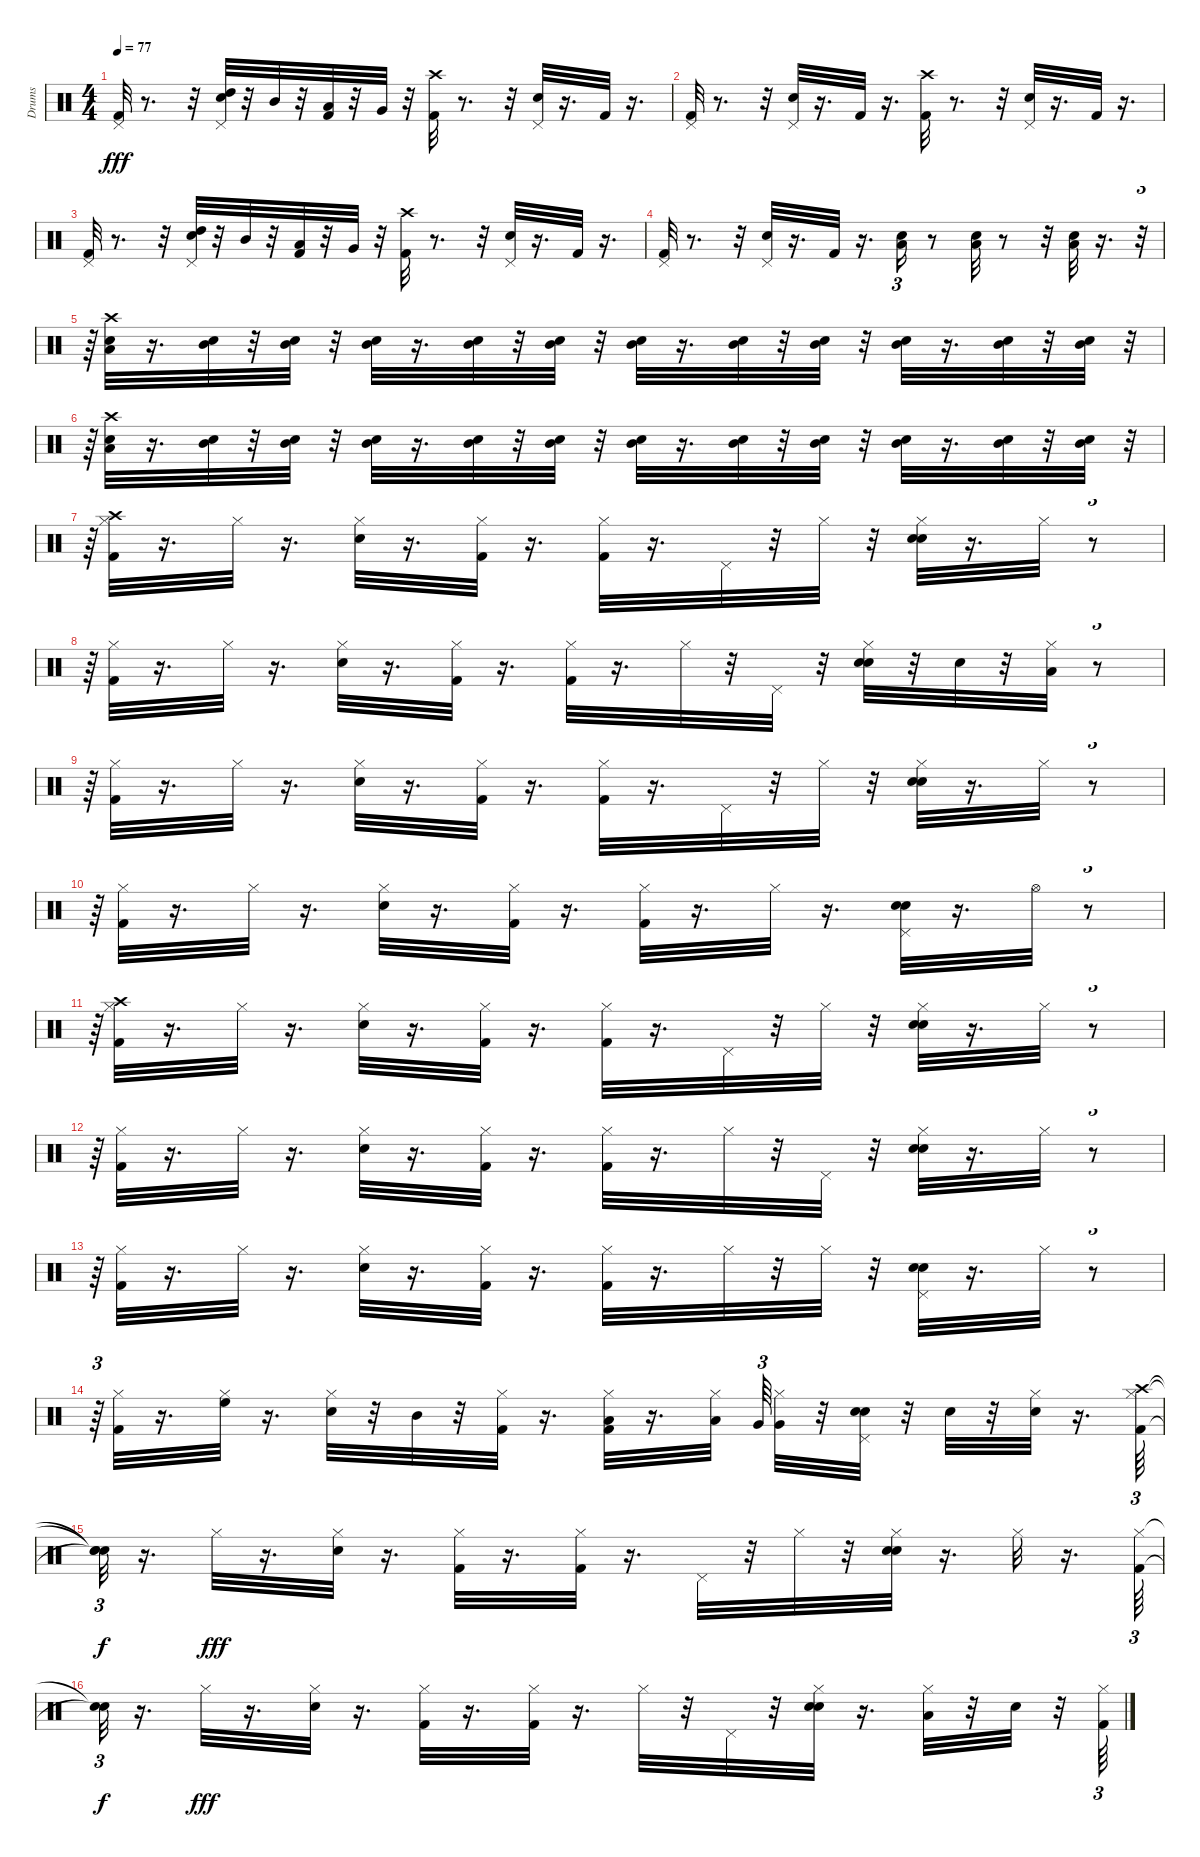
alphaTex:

\track ("Drums   " "Drums   ") {instrument percussion}
\staff {score}
\articulation defaults
\ts (4 4)
\tempo 77
\clef neutral
\ks c
("Kick (hit) 2" "Pedal Hi-Hat (hit)").32{dy fff} r.8{d} r.32 ("Snare (hit) 2" "Pedal Hi-Hat (hit)" "High Tom (hit)").32 r.32 "Mid Tom (hit)".32 r.32 ("Kick (hit) 2" "Low Tom (hit)").32 r.32 "Very Low Tom (hit)".32 r.32 ("Kick (hit) 2" "Crash high (hit)").32 r.8{d} r.32 ("Snare (hit) 2" "Pedal Hi-Hat (hit)").32 r.16{d} "Kick (hit) 2".32 r.16{d} |
("Kick (hit) 2" "Pedal Hi-Hat (hit)").32 r.8{d} r.32 ("Snare (hit) 2" "Pedal Hi-Hat (hit)").32 r.16{d} "Kick (hit) 2".32 r.16{d} ("Kick (hit) 2" "Crash high (hit)").32 r.8{d} r.32 ("Snare (hit) 2" "Pedal Hi-Hat (hit)").32 r.16{d} "Kick (hit) 2".32 r.16{d} |
("Kick (hit) 2" "Pedal Hi-Hat (hit)").32 r.8{d} r.32 ("Snare (hit) 2" "Pedal Hi-Hat (hit)" "High Tom (hit)").32 r.32 "Mid Tom (hit)".32 r.32 ("Kick (hit) 2" "Low Tom (hit)").32 r.32 "Very Low Tom (hit)".32 r.32 ("Kick (hit) 2" "Crash high (hit)").32 r.8{d} r.32 ("Snare (hit) 2" "Pedal Hi-Hat (hit)").32 r.16{d} "Kick (hit) 2".32 r.16{d} |
("Kick (hit) 2" "Pedal Hi-Hat (hit)").32 r.8{d} r.32 ("Snare (hit) 2" "Pedal Hi-Hat (hit)").32 r.16{d} "Kick (hit) 2".32 r.16{d} ("Snare (hit) 2" "Low Tom (hit)").16{tu (3 2)} r.8 ("Snare (hit) 2" "Low Tom (hit)").32 r.8 r.32 ("Snare (hit) 2" "Low Tom (hit)").32 r.16{d} r.32{tu (3 2)} |
r.64{tu (3 2)} ("Snare (hit) 2" "Low Tom (hit)" "Crash high (hit)").32 r.16{d} ("Snare (hit) 2" "Mid Tom (hit)").32 r.32 ("Snare (hit) 2" "Mid Tom (hit)").32 r.32 ("Snare (hit) 2" "Mid Tom (hit)").32 r.16{d} ("Snare (hit) 2" "Mid Tom (hit)").32 r.32 ("Snare (hit) 2" "Mid Tom (hit)").32 r.32 ("Snare (hit) 2" "Mid Tom (hit)").32 r.16{d} ("Snare (hit) 2" "Mid Tom (hit)").32 r.32 ("Snare (hit) 2" "Mid Tom (hit)").32 r.32 ("Snare (hit) 2" "Mid Tom (hit)").32 r.16{d} ("Snare (hit) 2" "Mid Tom (hit)").32 r.32 ("Snare (hit) 2" "Mid Tom (hit)").32 r.32{tu (3 2)} |
r.64{tu (3 2)} ("Snare (hit) 2" "Low Tom (hit)" "Crash high (hit)").32 r.16{d} ("Snare (hit) 2" "Mid Tom (hit)").32 r.32 ("Snare (hit) 2" "Mid Tom (hit)").32 r.32 ("Snare (hit) 2" "Mid Tom (hit)").32 r.16{d} ("Snare (hit) 2" "Mid Tom (hit)").32 r.32 ("Snare (hit) 2" "Mid Tom (hit)").32 r.32 ("Snare (hit) 2" "Mid Tom (hit)").32 r.16{d} ("Snare (hit) 2" "Mid Tom (hit)").32 r.32 ("Snare (hit) 2" "Mid Tom (hit)").32 r.32 ("Snare (hit) 2" "Mid Tom (hit)").32 r.16{d} ("Snare (hit) 2" "Mid Tom (hit)").32 r.32 ("Snare (hit) 2" "Mid Tom (hit)").32 r.32{tu (3 2)} |
r.64{tu (3 2)} ("Kick (hit) 2" "Hi-Hat (closed)" "Crash high (hit)").32 r.16{d} "Hi-Hat (closed)".32 r.16{d} ("Snare (hit) 2" "Hi-Hat (closed)").32 r.16{d} ("Kick (hit) 2" "Hi-Hat (closed)").32 r.16{d} ("Kick (hit) 2" "Hi-Hat (closed)").32 r.16{d} "Pedal Hi-Hat (hit)".32 r.32 "Hi-Hat (closed)".32 r.32 ("Snare (hit) 2" "Hand Clap (hit)" "Hi-Hat (closed)").32 r.16{d} "Hi-Hat (closed)".32 r.8{tu (3 2)} |
r.64{tu (3 2)} ("Kick (hit) 2" "Hi-Hat (closed)").32 r.16{d} "Hi-Hat (closed)".32 r.16{d} ("Snare (hit) 2" "Hi-Hat (closed)").32 r.16{d} ("Kick (hit) 2" "Hi-Hat (closed)").32 r.16{d} ("Kick (hit) 2" "Hi-Hat (closed)").32 r.16{d} "Hi-Hat (closed)".32 r.32 "Pedal Hi-Hat (hit)".32 r.32 ("Snare (hit) 2" "Hand Clap (hit)" "Hi-Hat (closed)").32 r.32 "Snare (hit) 2".32 r.32 ("Hi-Hat (closed)" "Low Tom (hit)").32 r.8{tu (3 2)} |
r.64{tu (3 2)} ("Kick (hit) 2" "Hi-Hat (closed)").32 r.16{d} "Hi-Hat (closed)".32 r.16{d} ("Snare (hit) 2" "Hi-Hat (closed)").32 r.16{d} ("Kick (hit) 2" "Hi-Hat (closed)").32 r.16{d} ("Kick (hit) 2" "Hi-Hat (closed)").32 r.16{d} "Pedal Hi-Hat (hit)".32 r.32 "Hi-Hat (closed)".32 r.32 ("Snare (hit) 2" "Hand Clap (hit)" "Hi-Hat (closed)").32 r.16{d} "Hi-Hat (closed)".32 r.8{tu (3 2)} |
r.64{tu (3 2)} ("Kick (hit) 2" "Hi-Hat (closed)").32 r.16{d} "Hi-Hat (closed)".32 r.16{d} ("Snare (hit) 2" "Hi-Hat (closed)").32 r.16{d} ("Kick (hit) 2" "Hi-Hat (closed)").32 r.16{d} ("Kick (hit) 2" "Hi-Hat (closed)").32 r.16{d} "Hi-Hat (closed)".32 r.16{d} ("Snare (hit) 2" "Hand Clap (hit)" "Pedal Hi-Hat (hit)").32 r.16{d} "Hi-Hat (open)".32 r.8{tu (3 2)} |
r.64{tu (3 2)} ("Kick (hit) 2" "Hi-Hat (closed)" "Crash high (hit)").32 r.16{d} "Hi-Hat (closed)".32 r.16{d} ("Snare (hit) 2" "Hi-Hat (closed)").32 r.16{d} ("Kick (hit) 2" "Hi-Hat (closed)").32 r.16{d} ("Kick (hit) 2" "Hi-Hat (closed)").32 r.16{d} "Pedal Hi-Hat (hit)".32 r.32 "Hi-Hat (closed)".32 r.32 ("Snare (hit) 2" "Hand Clap (hit)" "Hi-Hat (closed)").32 r.16{d} "Hi-Hat (closed)".32 r.8{tu (3 2)} |
r.64{tu (3 2)} ("Kick (hit) 2" "Hi-Hat (closed)").32 r.16{d} "Hi-Hat (closed)".32 r.16{d} ("Snare (hit) 2" "Hi-Hat (closed)").32 r.16{d} ("Kick (hit) 2" "Hi-Hat (closed)").32 r.16{d} ("Kick (hit) 2" "Hi-Hat (closed)").32 r.16{d} "Hi-Hat (closed)".32 r.32 "Pedal Hi-Hat (hit)".32 r.32 ("Snare (hit) 2" "Hand Clap (hit)" "Hi-Hat (closed)").32 r.16{d} "Hi-Hat (closed)".32 r.8{tu (3 2)} |
r.64{tu (3 2)} ("Kick (hit) 2" "Hi-Hat (closed)").32 r.16{d} "Hi-Hat (closed)".32 r.16{d} ("Snare (hit) 2" "Hi-Hat (closed)").32 r.16{d} ("Kick (hit) 2" "Hi-Hat (closed)").32 r.16{d} ("Kick (hit) 2" "Hi-Hat (closed)").32 r.16{d} "Hi-Hat (closed)".32 r.32 "Hi-Hat (closed)".32 r.32 ("Snare (hit) 2" "Hand Clap (hit)" "Pedal Hi-Hat (hit)").32 r.16{d} "Hi-Hat (closed)".32 r.8{tu (3 2)} |
r.64{tu (3 2)} ("Kick (hit) 2" "Hi-Hat (closed)").32 r.16{d} ("Hi-Hat (closed)" "High Floor Tom (hit)").32 r.16{d} ("Snare (hit) 2" "Hi-Hat (closed)").32 r.32 "Mid Tom (hit)".32 r.32 ("Kick (hit) 2" "Hi-Hat (closed)").32 r.16{d} ("Kick (hit) 2" "Hi-Hat (closed)" "Low Tom (hit)").32 r.16{d} ("Hi-Hat (closed)" "Low Tom (hit)").32 "Very Low Tom (hit)".64{tu (3 2)} ("Hi-Hat (closed)" "Very Low Tom (hit)").32 r.32 ("Snare (hit) 2" "Hand Clap (hit)" "Pedal Hi-Hat (hit)").32 r.32 "Electric Snare (hit)".32 r.32 ("Snare (hit) 2" "Hi-Hat (closed)").32 r.16{d} ("Kick (hit) 2" "Hi-Hat (closed)" "Crash high (hit)").64{tu (3 2)} |
("Snare (hit)"{t} "Snare (hit)"{t} "Snare (hit)"{t}).32{tu (3 2) dy f} r.16{d} "Hi-Hat (closed)".32{dy fff} r.16{d} ("Snare (hit) 2" "Hi-Hat (closed)").32 r.16{d} ("Kick (hit) 2" "Hi-Hat (closed)").32 r.16{d} ("Kick (hit) 2" "Hi-Hat (closed)").32 r.16{d} "Pedal Hi-Hat (hit)".32 r.32 "Hi-Hat (closed)".32 r.32 ("Snare (hit) 2" "Hand Clap (hit)" "Hi-Hat (closed)").32 r.16{d} "Hi-Hat (closed)".32 r.16{d} ("Kick (hit) 2" "Hi-Hat (closed)").64{tu (3 2)} |
("Snare (hit)"{t} "Snare (hit)"{t}).32{tu (3 2) dy f} r.16{d} "Hi-Hat (closed)".32{dy fff} r.16{d} ("Snare (hit) 2" "Hi-Hat (closed)").32 r.16{d} ("Kick (hit) 2" "Hi-Hat (closed)").32 r.16{d} ("Kick (hit) 2" "Hi-Hat (closed)").32 r.16{d} "Hi-Hat (closed)".32 r.32 "Pedal Hi-Hat (hit)".32 r.32 ("Snare (hit) 2" "Hand Clap (hit)" "Hi-Hat (closed)").32 r.16{d} ("Hi-Hat (closed)" "Low Tom (hit)").32 r.32 "Snare (hit) 2".32 r.32 ("Kick (hit) 2" "Hi-Hat (closed)").64{tu (3 2)}
